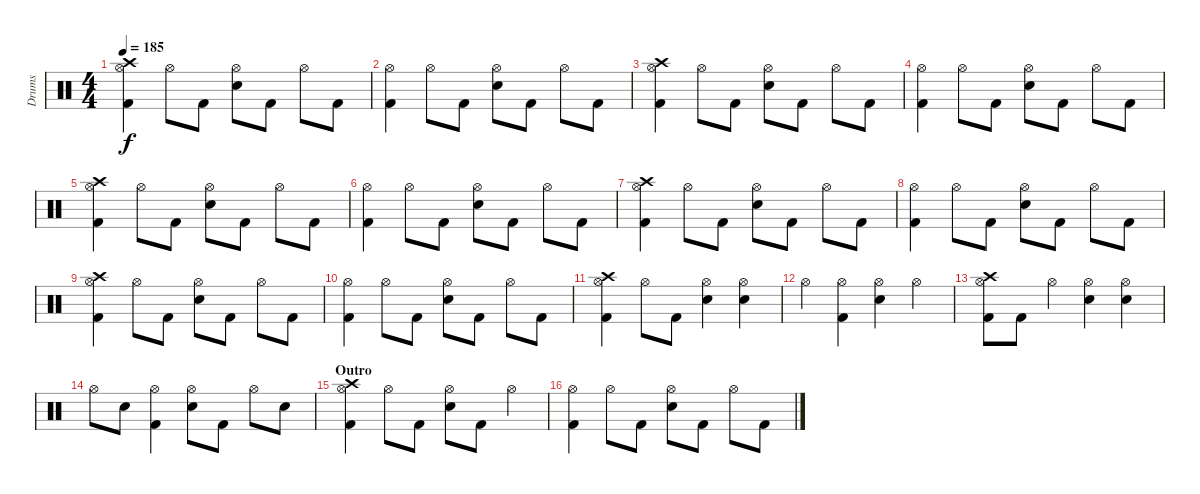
\track ("Drums" "Drums") {instrument percussion}
\staff {score}
\articulation defaults
\ts (4 4)
\tempo 185
\clef neutral
\ks c
("Hi-Hat (open)" "Kick (hit) 2" "Crash high (hit)").4{dy f} "Hi-Hat (open)".8 "Kick (hit) 2".8 ("Hi-Hat (open)" "Electric Snare (hit)").8 "Kick (hit) 2".8 "Hi-Hat (open)".8 "Kick (hit) 2".8 |
("Hi-Hat (open)" "Kick (hit) 2").4 "Hi-Hat (open)".8 "Kick (hit) 2".8 ("Hi-Hat (open)" "Electric Snare (hit)").8 "Kick (hit) 2".8 "Hi-Hat (open)".8 "Kick (hit) 2".8 |
("Hi-Hat (open)" "Kick (hit) 2" "Crash high (hit)").4 "Hi-Hat (open)".8 "Kick (hit) 2".8 ("Hi-Hat (open)" "Electric Snare (hit)").8 "Kick (hit) 2".8 "Hi-Hat (open)".8 "Kick (hit) 2".8 |
("Hi-Hat (open)" "Kick (hit) 2").4 "Hi-Hat (open)".8 "Kick (hit) 2".8 ("Hi-Hat (open)" "Electric Snare (hit)").8 "Kick (hit) 2".8 "Hi-Hat (open)".8 "Kick (hit) 2".8 |
("Hi-Hat (open)" "Kick (hit) 2" "Crash high (hit)").4 "Hi-Hat (open)".8 "Kick (hit) 2".8 ("Hi-Hat (open)" "Electric Snare (hit)").8 "Kick (hit) 2".8 "Hi-Hat (open)".8 "Kick (hit) 2".8 |
("Hi-Hat (open)" "Kick (hit) 2").4 "Hi-Hat (open)".8 "Kick (hit) 2".8 ("Hi-Hat (open)" "Electric Snare (hit)").8 "Kick (hit) 2".8 "Hi-Hat (open)".8 "Kick (hit) 2".8 |
("Hi-Hat (open)" "Kick (hit) 2" "Crash high (hit)").4 "Hi-Hat (open)".8 "Kick (hit) 2".8 ("Hi-Hat (open)" "Electric Snare (hit)").8 "Kick (hit) 2".8 "Hi-Hat (open)".8 "Kick (hit) 2".8 |
("Hi-Hat (open)" "Kick (hit) 2").4 "Hi-Hat (open)".8 "Kick (hit) 2".8 ("Hi-Hat (open)" "Electric Snare (hit)").8 "Kick (hit) 2".8 "Hi-Hat (open)".8 "Kick (hit) 2".8 |
("Hi-Hat (open)" "Kick (hit) 2" "Crash high (hit)").4 "Hi-Hat (open)".8 "Kick (hit) 2".8 ("Hi-Hat (open)" "Electric Snare (hit)").8 "Kick (hit) 2".8 "Hi-Hat (open)".8 "Kick (hit) 2".8 |
("Hi-Hat (open)" "Kick (hit) 2").4 "Hi-Hat (open)".8 "Kick (hit) 2".8 ("Hi-Hat (open)" "Electric Snare (hit)").8 "Kick (hit) 2".8 "Hi-Hat (open)".8 "Kick (hit) 2".8 |
("Hi-Hat (open)" "Kick (hit) 2" "Crash high (hit)").4 "Hi-Hat (open)".8 "Kick (hit) 2".8 ("Hi-Hat (open)" "Electric Snare (hit)").4 ("Hi-Hat (open)" "Electric Snare (hit)").4 |
"Hi-Hat (open)".4 ("Hi-Hat (open)" "Kick (hit) 2").4 ("Hi-Hat (open)" "Electric Snare (hit)").4 "Hi-Hat (open)".4 |
("Hi-Hat (open)" "Kick (hit) 2" "Crash high (hit)").8 "Kick (hit) 2".8 "Hi-Hat (open)".4 ("Hi-Hat (open)" "Electric Snare (hit)").4 ("Hi-Hat (open)" "Electric Snare (hit)").4 |
"Hi-Hat (open)".8 "Electric Snare (hit)".8 ("Hi-Hat (open)" "Kick (hit) 2").4 ("Hi-Hat (open)" "Electric Snare (hit)").8 "Kick (hit) 2".8 "Hi-Hat (open)".8 "Electric Snare (hit)".8 |
\section ("" "Outro")
("Hi-Hat (open)" "Kick (hit) 2" "Crash high (hit)").4 "Hi-Hat (open)".8 "Kick (hit) 2".8 ("Hi-Hat (open)" "Electric Snare (hit)").8 "Kick (hit) 2".8 "Hi-Hat (open)".4 |
("Hi-Hat (open)" "Kick (hit) 2").4 "Hi-Hat (open)".8 "Kick (hit) 2".8 ("Hi-Hat (open)" "Electric Snare (hit)").8 "Kick (hit) 2".8 "Hi-Hat (open)".8 "Kick (hit) 2".8
